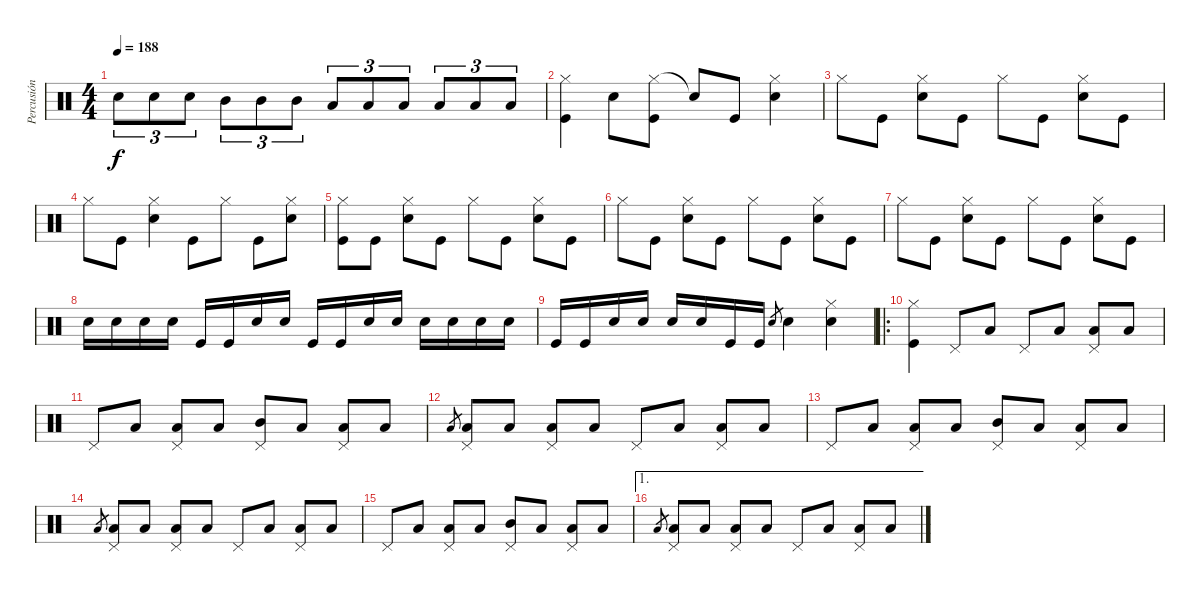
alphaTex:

\track ("Percusión" "Percusión") {instrument percussion}
\staff {score}
\articulation defaults
\ts (4 4)
\tempo 188
\clef neutral
\ks c "Snare (hit) 2".8{tu (3 2) dy f} "Snare (hit) 2".8{tu (3 2)} "Snare (hit) 2".8{tu (3 2)} "Mid Tom (hit)".8{tu (3 2)} "Mid Tom (hit)".8{tu (3 2)} "Mid Tom (hit)".8{tu (3 2)} "Low Tom (hit)".8{tu (3 2)} "Low Tom (hit)".8{tu (3 2)} "Low Tom (hit)".8{tu (3 2)} "Low Tom (hit)".8{tu (3 2)} "Low Tom (hit)".8{tu (3 2)} "Low Tom (hit)".8{tu (3 2)}
|
("Hi-Hat (closed)" "Kick (hit)").4 "Snare (hit) 2".8 ("Hi-Hat (closed)" "Kick (hit)").8 "Snare (hit)"{t}.8 "Kick (hit)".8 ("Hi-Hat (closed)" "Snare (hit) 2").4 |
"Hi-Hat (closed)".8 "Kick (hit)".8 ("Hi-Hat (closed)" "Snare (hit) 2").8 "Kick (hit)".8 "Hi-Hat (closed)".8 "Kick (hit)".8 ("Hi-Hat (closed)" "Snare (hit) 2").8 "Kick (hit)".8 |
"Hi-Hat (closed)".8 "Kick (hit)".8 ("Hi-Hat (closed)" "Snare (hit) 2").4 "Kick (hit)".8 "Hi-Hat (closed)".8 "Kick (hit)".8 ("Hi-Hat (closed)" "Snare (hit) 2").8 |
("Hi-Hat (closed)" "Kick (hit)").8 "Kick (hit)".8 ("Hi-Hat (closed)" "Snare (hit) 2").8 "Kick (hit)".8 "Hi-Hat (closed)".8 "Kick (hit)".8 ("Hi-Hat (closed)" "Snare (hit) 2").8 "Kick (hit)".8 |
"Hi-Hat (closed)".8 "Kick (hit)".8 ("Hi-Hat (closed)" "Snare (hit) 2").8 "Kick (hit)".8 "Hi-Hat (closed)".8 "Kick (hit)".8 ("Hi-Hat (closed)" "Snare (hit) 2").8 "Kick (hit)".8 |
"Hi-Hat (closed)".8 "Kick (hit)".8 ("Hi-Hat (closed)" "Snare (hit) 2").8 "Kick (hit)".8 "Hi-Hat (closed)".8 "Kick (hit)".8 ("Hi-Hat (closed)" "Snare (hit) 2").8 "Kick (hit)".8 |
"Snare (hit) 2".16 "Snare (hit) 2".16 "Snare (hit) 2".16 "Snare (hit) 2".16 "Kick (hit)".16 "Kick (hit)".16 "Snare (hit) 2".16 "Snare (hit) 2".16 "Kick (hit)".16 "Kick (hit)".16 "Snare (hit) 2".16 "Snare (hit) 2".16 "Snare (hit) 2".16 "Snare (hit) 2".16 "Snare (hit) 2".16 "Snare (hit) 2".16 |
"Kick (hit)".16 "Kick (hit)".16 "Snare (hit) 2".16 "Snare (hit) 2".16 "Snare (hit) 2".16 "Snare (hit) 2".16 "Kick (hit)".16 "Kick (hit)".16 "Snare (hit) 2".8{gr} "Snare (hit) 2".4 ("Hi-Hat (closed)" "Snare (hit) 2").4 |
\ro
("Hi-Hat (closed)" "Kick (hit)").4 "Pedal Hi-Hat (hit)".8 "Low Tom (hit)".8 "Pedal Hi-Hat (hit)".8 "Low Tom (hit)".8 ("Low Tom (hit)" "Pedal Hi-Hat (hit)").8 "Low Tom (hit)".8 |
"Pedal Hi-Hat (hit)".8 "Low Tom (hit)".8 ("Low Tom (hit)" "Pedal Hi-Hat (hit)").8 "Low Tom (hit)".8 ("Mid Tom (hit)" "Pedal Hi-Hat (hit)").8 "Low Tom (hit)".8 ("Low Tom (hit)" "Pedal Hi-Hat (hit)").8 "Low Tom (hit)".8 |
"Low Tom (hit)".8{gr} ("Low Tom (hit)" "Pedal Hi-Hat (hit)").8 "Low Tom (hit)".8 ("Low Tom (hit)" "Pedal Hi-Hat (hit)").8 "Low Tom (hit)".8 "Pedal Hi-Hat (hit)".8 "Low Tom (hit)".8 ("Low Tom (hit)" "Pedal Hi-Hat (hit)").8 "Low Tom (hit)".8 |
"Pedal Hi-Hat (hit)".8 "Low Tom (hit)".8 ("Low Tom (hit)" "Pedal Hi-Hat (hit)").8 "Low Tom (hit)".8 ("Mid Tom (hit)" "Pedal Hi-Hat (hit)").8 "Low Tom (hit)".8 ("Low Tom (hit)" "Pedal Hi-Hat (hit)").8 "Low Tom (hit)".8 |
"Low Tom (hit)".8{gr} ("Low Tom (hit)" "Pedal Hi-Hat (hit)").8 "Low Tom (hit)".8 ("Low Tom (hit)" "Pedal Hi-Hat (hit)").8 "Low Tom (hit)".8 "Pedal Hi-Hat (hit)".8 "Low Tom (hit)".8 ("Low Tom (hit)" "Pedal Hi-Hat (hit)").8 "Low Tom (hit)".8 |
"Pedal Hi-Hat (hit)".8 "Low Tom (hit)".8 ("Low Tom (hit)" "Pedal Hi-Hat (hit)").8 "Low Tom (hit)".8 ("Mid Tom (hit)" "Pedal Hi-Hat (hit)").8 "Low Tom (hit)".8 ("Low Tom (hit)" "Pedal Hi-Hat (hit)").8 "Low Tom (hit)".8 |
\ae 1 "Low Tom (hit)".8{gr}
("Low Tom (hit)" "Pedal Hi-Hat (hit)").8 "Low Tom (hit)".8 ("Low Tom (hit)" "Pedal Hi-Hat (hit)").8 "Low Tom (hit)".8 "Pedal Hi-Hat (hit)".8 "Low Tom (hit)".8 ("Low Tom (hit)" "Pedal Hi-Hat (hit)").8 "Low Tom (hit)".8
